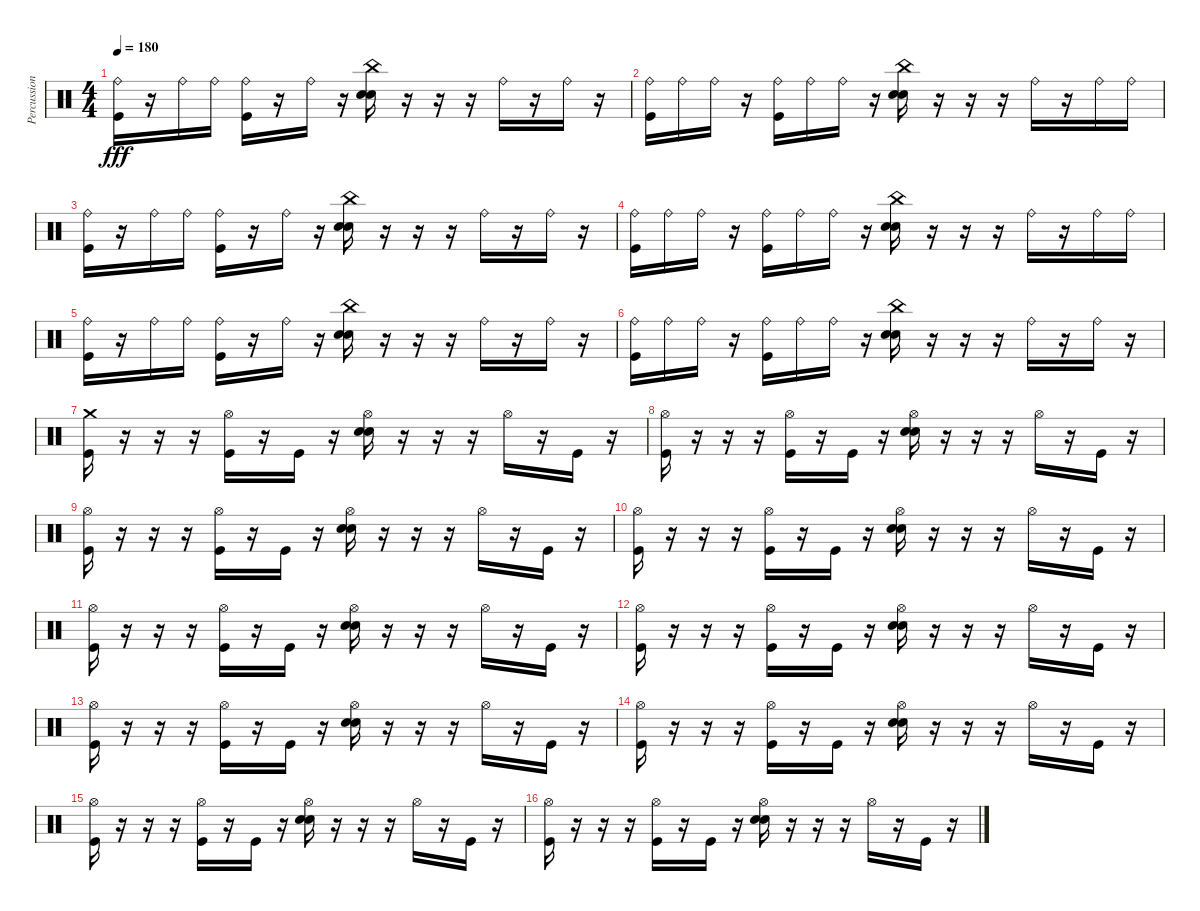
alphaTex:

\track ("Percussion" "Percussion") {instrument percussion}
\staff {score}
\articulation defaults
\ts (4 4)
\tempo 180
\clef neutral
\ks c
("Ride (bell)" "Kick (hit)").16{dy fff} r.16 "Ride (bell)".16 "Ride (bell)".16 ("Ride (bell)" "Kick (hit)").16 r.16 "Ride (bell)".16 r.16 ("China (hit)" "Snare (hit) 2" "Electric Snare (hit)").16 r.16 r.16 r.16 "Ride (bell)".16 r.16 "Ride (bell)".16 r.16 |
("Ride (bell)" "Kick (hit)").16 "Ride (bell)".16 "Ride (bell)".16 r.16 ("Ride (bell)" "Kick (hit)").16 "Ride (bell)".16 "Ride (bell)".16 r.16 ("China (hit)" "Snare (hit) 2" "Electric Snare (hit)").16 r.16 r.16 r.16 "Ride (bell)".16 r.16 "Ride (bell)".16 "Ride (bell)".16 |
("Ride (bell)" "Kick (hit)").16 r.16 "Ride (bell)".16 "Ride (bell)".16 ("Ride (bell)" "Kick (hit)").16 r.16 "Ride (bell)".16 r.16 ("China (hit)" "Snare (hit) 2" "Electric Snare (hit)").16 r.16 r.16 r.16 "Ride (bell)".16 r.16 "Ride (bell)".16 r.16 |
("Ride (bell)" "Kick (hit)").16 "Ride (bell)".16 "Ride (bell)".16 r.16 ("Ride (bell)" "Kick (hit)").16 "Ride (bell)".16 "Ride (bell)".16 r.16 ("China (hit)" "Snare (hit) 2" "Electric Snare (hit)").16 r.16 r.16 r.16 "Ride (bell)".16 r.16 "Ride (bell)".16 "Ride (bell)".16 |
("Ride (bell)" "Kick (hit)").16 r.16 "Ride (bell)".16 "Ride (bell)".16 ("Ride (bell)" "Kick (hit)").16 r.16 "Ride (bell)".16 r.16 ("China (hit)" "Snare (hit) 2" "Electric Snare (hit)").16 r.16 r.16 r.16 "Ride (bell)".16 r.16 "Ride (bell)".16 r.16 |
("Ride (bell)" "Kick (hit)").16 "Ride (bell)".16 "Ride (bell)".16 r.16 ("Ride (bell)" "Kick (hit)").16 "Ride (bell)".16 "Ride (bell)".16 r.16 ("China (hit)" "Snare (hit) 2" "Electric Snare (hit)").16 r.16 r.16 r.16 "Ride (bell)".16 r.16 "Ride (bell)".16 r.16 |
("Crash medium (hit)" "Kick (hit)").16 r.16 r.16 r.16 ("Hi-Hat (open)" "Kick (hit)").16 r.16 "Kick (hit)".16 r.16 ("Hi-Hat (open)" "Snare (hit) 2" "Electric Snare (hit)").16 r.16 r.16 r.16 "Hi-Hat (open)".16 r.16 "Kick (hit)".16 r.16 |
("Hi-Hat (open)" "Kick (hit)").16 r.16 r.16 r.16 ("Hi-Hat (open)" "Kick (hit)").16 r.16 "Kick (hit)".16 r.16 ("Hi-Hat (open)" "Snare (hit) 2" "Electric Snare (hit)").16 r.16 r.16 r.16 "Hi-Hat (open)".16 r.16 "Kick (hit)".16 r.16 |
("Hi-Hat (open)" "Kick (hit)").16 r.16 r.16 r.16 ("Hi-Hat (open)" "Kick (hit)").16 r.16 "Kick (hit)".16 r.16 ("Hi-Hat (open)" "Snare (hit) 2" "Electric Snare (hit)").16 r.16 r.16 r.16 "Hi-Hat (open)".16 r.16 "Kick (hit)".16 r.16 |
("Hi-Hat (open)" "Kick (hit)").16 r.16 r.16 r.16 ("Hi-Hat (open)" "Kick (hit)").16 r.16 "Kick (hit)".16 r.16 ("Hi-Hat (open)" "Snare (hit) 2" "Electric Snare (hit)").16 r.16 r.16 r.16 "Hi-Hat (open)".16 r.16 "Kick (hit)".16 r.16 |
("Hi-Hat (open)" "Kick (hit)").16 r.16 r.16 r.16 ("Hi-Hat (open)" "Kick (hit)").16 r.16 "Kick (hit)".16 r.16 ("Hi-Hat (open)" "Snare (hit) 2" "Electric Snare (hit)").16 r.16 r.16 r.16 "Hi-Hat (open)".16 r.16 "Kick (hit)".16 r.16 |
("Hi-Hat (open)" "Kick (hit)").16 r.16 r.16 r.16 ("Hi-Hat (open)" "Kick (hit)").16 r.16 "Kick (hit)".16 r.16 ("Hi-Hat (open)" "Snare (hit) 2" "Electric Snare (hit)").16 r.16 r.16 r.16 "Hi-Hat (open)".16 r.16 "Kick (hit)".16 r.16 |
("Hi-Hat (open)" "Kick (hit)").16 r.16 r.16 r.16 ("Hi-Hat (open)" "Kick (hit)").16 r.16 "Kick (hit)".16 r.16 ("Hi-Hat (open)" "Snare (hit) 2" "Electric Snare (hit)").16 r.16 r.16 r.16 "Hi-Hat (open)".16 r.16 "Kick (hit)".16 r.16 |
("Hi-Hat (open)" "Kick (hit)").16 r.16 r.16 r.16 ("Hi-Hat (open)" "Kick (hit)").16 r.16 "Kick (hit)".16 r.16 ("Hi-Hat (open)" "Snare (hit) 2" "Electric Snare (hit)").16 r.16 r.16 r.16 "Hi-Hat (open)".16 r.16 "Kick (hit)".16 r.16 |
("Hi-Hat (open)" "Kick (hit)").16 r.16 r.16 r.16 ("Hi-Hat (open)" "Kick (hit)").16 r.16 "Kick (hit)".16 r.16 ("Hi-Hat (open)" "Snare (hit) 2" "Electric Snare (hit)").16 r.16 r.16 r.16 "Hi-Hat (open)".16 r.16 "Kick (hit)".16 r.16 |
("Hi-Hat (open)" "Kick (hit)").16 r.16 r.16 r.16 ("Hi-Hat (open)" "Kick (hit)").16 r.16 "Kick (hit)".16 r.16 ("Hi-Hat (open)" "Snare (hit) 2" "Electric Snare (hit)").16 r.16 r.16 r.16 "Hi-Hat (open)".16 r.16 "Kick (hit)".16 r.16
